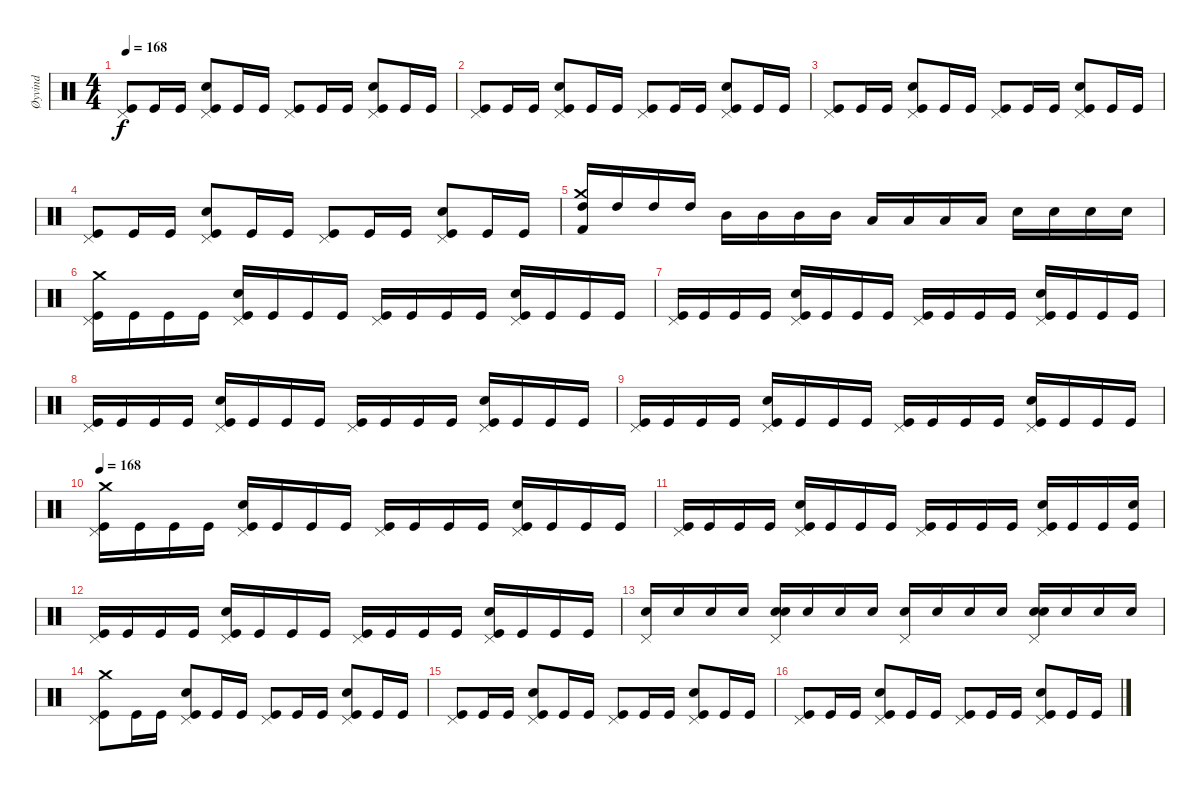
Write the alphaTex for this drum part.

\track ("Øyvind" "Øyvind") {instrument percussion}
\staff {score}
\articulation defaults
\ts (4 4)
\tempo 168
\clef neutral
\ks c
("Pedal Hi-Hat (hit)" "Kick (hit)").8{dy f} "Kick (hit)".16 "Kick (hit)".16 ("Snare (hit) 2" "Pedal Hi-Hat (hit)" "Kick (hit)").8 "Kick (hit)".16 "Kick (hit)".16 ("Pedal Hi-Hat (hit)" "Kick (hit)").8 "Kick (hit)".16 "Kick (hit)".16 ("Snare (hit) 2" "Pedal Hi-Hat (hit)" "Kick (hit)").8 "Kick (hit)".16 "Kick (hit)".16 |
("Pedal Hi-Hat (hit)" "Kick (hit)").8 "Kick (hit)".16 "Kick (hit)".16 ("Snare (hit) 2" "Pedal Hi-Hat (hit)" "Kick (hit)").8 "Kick (hit)".16 "Kick (hit)".16 ("Pedal Hi-Hat (hit)" "Kick (hit)").8 "Kick (hit)".16 "Kick (hit)".16 ("Snare (hit) 2" "Pedal Hi-Hat (hit)" "Kick (hit)").8 "Kick (hit)".16 "Kick (hit)".16 |
("Pedal Hi-Hat (hit)" "Kick (hit)").8 "Kick (hit)".16 "Kick (hit)".16 ("Snare (hit) 2" "Pedal Hi-Hat (hit)" "Kick (hit)").8 "Kick (hit)".16 "Kick (hit)".16 ("Pedal Hi-Hat (hit)" "Kick (hit)").8 "Kick (hit)".16 "Kick (hit)".16 ("Snare (hit) 2" "Pedal Hi-Hat (hit)" "Kick (hit)").8 "Kick (hit)".16 "Kick (hit)".16 |
("Pedal Hi-Hat (hit)" "Kick (hit)").8 "Kick (hit)".16 "Kick (hit)".16 ("Snare (hit) 2" "Pedal Hi-Hat (hit)" "Kick (hit)").8 "Kick (hit)".16 "Kick (hit)".16 ("Pedal Hi-Hat (hit)" "Kick (hit)").8 "Kick (hit)".16 "Kick (hit)".16 ("Snare (hit) 2" "Pedal Hi-Hat (hit)" "Kick (hit)").8 "Kick (hit)".16 "Kick (hit)".16 |
("High Tom (hit)" "Crash medium (hit)" "Kick (hit) 2").16 "High Tom (hit)".16 "High Tom (hit)".16 "High Tom (hit)".16 "Mid Tom (hit)".16 "Mid Tom (hit)".16 "Mid Tom (hit)".16 "Mid Tom (hit)".16 "Low Tom (hit)".16 "Low Tom (hit)".16 "Low Tom (hit)".16 "Low Tom (hit)".16 "Snare (hit) 2".16 "Snare (hit) 2".16 "Snare (hit) 2".16 "Snare (hit) 2".16 |
("Crash medium (hit)" "Pedal Hi-Hat (hit)" "Kick (hit)").16 "Kick (hit)".16 "Kick (hit)".16 "Kick (hit)".16 ("Snare (hit) 2" "Pedal Hi-Hat (hit)" "Kick (hit)").16 "Kick (hit)".16 "Kick (hit)".16 "Kick (hit)".16 ("Pedal Hi-Hat (hit)" "Kick (hit)").16 "Kick (hit)".16 "Kick (hit)".16 "Kick (hit)".16 ("Snare (hit) 2" "Pedal Hi-Hat (hit)" "Kick (hit)").16 "Kick (hit)".16 "Kick (hit)".16 "Kick (hit)".16 |
("Pedal Hi-Hat (hit)" "Kick (hit)").16 "Kick (hit)".16 "Kick (hit)".16 "Kick (hit)".16 ("Snare (hit) 2" "Pedal Hi-Hat (hit)" "Kick (hit)").16 "Kick (hit)".16 "Kick (hit)".16 "Kick (hit)".16 ("Pedal Hi-Hat (hit)" "Kick (hit)").16 "Kick (hit)".16 "Kick (hit)".16 "Kick (hit)".16 ("Snare (hit) 2" "Pedal Hi-Hat (hit)" "Kick (hit)").16 "Kick (hit)".16 "Kick (hit)".16 "Kick (hit)".16 |
("Pedal Hi-Hat (hit)" "Kick (hit)").16 "Kick (hit)".16 "Kick (hit)".16 "Kick (hit)".16 ("Snare (hit) 2" "Pedal Hi-Hat (hit)" "Kick (hit)").16 "Kick (hit)".16 "Kick (hit)".16 "Kick (hit)".16 ("Pedal Hi-Hat (hit)" "Kick (hit)").16 "Kick (hit)".16 "Kick (hit)".16 "Kick (hit)".16 ("Snare (hit) 2" "Pedal Hi-Hat (hit)" "Kick (hit)").16 "Kick (hit)".16 "Kick (hit)".16 "Kick (hit)".16 |
("Pedal Hi-Hat (hit)" "Kick (hit)").16 "Kick (hit)".16 "Kick (hit)".16 "Kick (hit)".16 ("Snare (hit) 2" "Pedal Hi-Hat (hit)" "Kick (hit)").16 "Kick (hit)".16 "Kick (hit)".16 "Kick (hit)".16 ("Pedal Hi-Hat (hit)" "Kick (hit)").16 "Kick (hit)".16 "Kick (hit)".16 "Kick (hit)".16 ("Snare (hit) 2" "Pedal Hi-Hat (hit)" "Kick (hit)").16 "Kick (hit)".16 "Kick (hit)".16 "Kick (hit)".16 |
\tempo 168
("Crash medium (hit)" "Pedal Hi-Hat (hit)" "Kick (hit)").16 "Kick (hit)".16 "Kick (hit)".16 "Kick (hit)".16 ("Snare (hit) 2" "Pedal Hi-Hat (hit)" "Kick (hit)").16 "Kick (hit)".16 "Kick (hit)".16 "Kick (hit)".16 ("Pedal Hi-Hat (hit)" "Kick (hit)").16 "Kick (hit)".16 "Kick (hit)".16 "Kick (hit)".16 ("Snare (hit) 2" "Pedal Hi-Hat (hit)" "Kick (hit)").16 "Kick (hit)".16 "Kick (hit)".16 "Kick (hit)".16 |
("Pedal Hi-Hat (hit)" "Kick (hit)").16 "Kick (hit)".16 "Kick (hit)".16 "Kick (hit)".16 ("Snare (hit) 2" "Pedal Hi-Hat (hit)" "Kick (hit)").16 "Kick (hit)".16 "Kick (hit)".16 "Kick (hit)".16 ("Pedal Hi-Hat (hit)" "Kick (hit)").16 "Kick (hit)".16 "Kick (hit)".16 "Kick (hit)".16 ("Snare (hit) 2" "Pedal Hi-Hat (hit)" "Kick (hit)").16 "Kick (hit)".16 "Kick (hit)".16 ("Snare (hit) 2" "Kick (hit)").16 |
("Pedal Hi-Hat (hit)" "Kick (hit)").16 "Kick (hit)".16 "Kick (hit)".16 "Kick (hit)".16 ("Snare (hit) 2" "Pedal Hi-Hat (hit)" "Kick (hit)").16 "Kick (hit)".16 "Kick (hit)".16 "Kick (hit)".16 ("Pedal Hi-Hat (hit)" "Kick (hit)").16 "Kick (hit)".16 "Kick (hit)".16 "Kick (hit)".16 ("Snare (hit) 2" "Pedal Hi-Hat (hit)" "Kick (hit)").16 "Kick (hit)".16 "Kick (hit)".16 "Kick (hit)".16 |
("Pedal Hi-Hat (hit)" "Snare (hit) 2").16 "Snare (hit) 2".16 "Snare (hit) 2".16 "Snare (hit) 2".16 ("Snare (hit) 2" "Pedal Hi-Hat (hit)" "Snare (hit) 2").16 "Snare (hit) 2".16 "Snare (hit) 2".16 "Snare (hit) 2".16 ("Pedal Hi-Hat (hit)" "Snare (hit) 2").16 "Snare (hit) 2".16 "Snare (hit) 2".16 "Snare (hit) 2".16 ("Snare (hit) 2" "Pedal Hi-Hat (hit)" "Snare (hit) 2").16 "Snare (hit) 2".16 "Snare (hit) 2".16 "Snare (hit) 2".16 |
("Crash medium (hit)" "Pedal Hi-Hat (hit)" "Kick (hit)").8 "Kick (hit)".16 "Kick (hit)".16 ("Snare (hit) 2" "Pedal Hi-Hat (hit)" "Kick (hit)").8 "Kick (hit)".16 "Kick (hit)".16 ("Pedal Hi-Hat (hit)" "Kick (hit)").8 "Kick (hit)".16 "Kick (hit)".16 ("Snare (hit) 2" "Pedal Hi-Hat (hit)" "Kick (hit)").8 "Kick (hit)".16 "Kick (hit)".16 |
("Pedal Hi-Hat (hit)" "Kick (hit)").8 "Kick (hit)".16 "Kick (hit)".16 ("Snare (hit) 2" "Pedal Hi-Hat (hit)" "Kick (hit)").8 "Kick (hit)".16 "Kick (hit)".16 ("Pedal Hi-Hat (hit)" "Kick (hit)").8 "Kick (hit)".16 "Kick (hit)".16 ("Snare (hit) 2" "Pedal Hi-Hat (hit)" "Kick (hit)").8 "Kick (hit)".16 "Kick (hit)".16 |
("Pedal Hi-Hat (hit)" "Kick (hit)").8 "Kick (hit)".16 "Kick (hit)".16 ("Snare (hit) 2" "Pedal Hi-Hat (hit)" "Kick (hit)").8 "Kick (hit)".16 "Kick (hit)".16 ("Pedal Hi-Hat (hit)" "Kick (hit)").8 "Kick (hit)".16 "Kick (hit)".16 ("Snare (hit) 2" "Pedal Hi-Hat (hit)" "Kick (hit)").8 "Kick (hit)".16 "Kick (hit)".16
